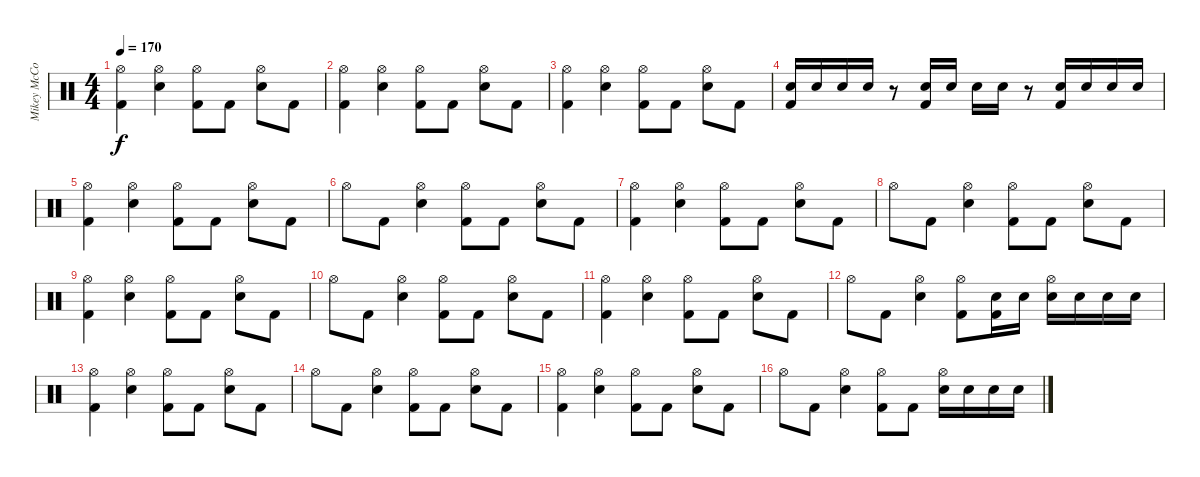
\track ("Mikey McCormack" "Mikey McCo") {instrument percussion}
\staff {score}
\articulation defaults
\ts (4 4)
\tempo 170
\clef neutral
\ks c
("Hi-Hat (open)" "Kick (hit) 2").4{dy f} ("Hi-Hat (open)" "Electric Snare (hit)").4 ("Hi-Hat (open)" "Kick (hit) 2").8 "Kick (hit) 2".8 ("Hi-Hat (open)" "Electric Snare (hit)").8 "Kick (hit) 2".8 |
("Hi-Hat (open)" "Kick (hit) 2").4 ("Hi-Hat (open)" "Electric Snare (hit)").4 ("Hi-Hat (open)" "Kick (hit) 2").8 "Kick (hit) 2".8 ("Hi-Hat (open)" "Electric Snare (hit)").8 "Kick (hit) 2".8 |
("Hi-Hat (open)" "Kick (hit) 2").4 ("Hi-Hat (open)" "Electric Snare (hit)").4 ("Hi-Hat (open)" "Kick (hit) 2").8 "Kick (hit) 2".8 ("Hi-Hat (open)" "Electric Snare (hit)").8 "Kick (hit) 2".8 |
("Electric Snare (hit)" "Kick (hit) 2").16 "Electric Snare (hit)".16 "Electric Snare (hit)".16 "Electric Snare (hit)".16 r.8 ("Electric Snare (hit)" "Kick (hit) 2").16 "Electric Snare (hit)".16 "Electric Snare (hit)".16 "Electric Snare (hit)".16 r.8 ("Electric Snare (hit)" "Kick (hit) 2").16 "Electric Snare (hit)".16 "Electric Snare (hit)".16 "Electric Snare (hit)".16 |
("Hi-Hat (open)" "Kick (hit) 2").4 ("Hi-Hat (open)" "Electric Snare (hit)").4 ("Hi-Hat (open)" "Kick (hit) 2").8 "Kick (hit) 2".8 ("Hi-Hat (open)" "Electric Snare (hit)").8 "Kick (hit) 2".8 |
"Hi-Hat (open)".8 "Kick (hit) 2".8 ("Hi-Hat (open)" "Electric Snare (hit)").4 ("Hi-Hat (open)" "Kick (hit) 2").8 "Kick (hit) 2".8 ("Hi-Hat (open)" "Electric Snare (hit)").8 "Kick (hit) 2".8 |
("Hi-Hat (open)" "Kick (hit) 2").4 ("Hi-Hat (open)" "Electric Snare (hit)").4 ("Hi-Hat (open)" "Kick (hit) 2").8 "Kick (hit) 2".8 ("Hi-Hat (open)" "Electric Snare (hit)").8 "Kick (hit) 2".8 |
"Hi-Hat (open)".8 "Kick (hit) 2".8 ("Hi-Hat (open)" "Electric Snare (hit)").4 ("Hi-Hat (open)" "Kick (hit) 2").8 "Kick (hit) 2".8 ("Hi-Hat (open)" "Electric Snare (hit)").8 "Kick (hit) 2".8 |
("Hi-Hat (open)" "Kick (hit) 2").4 ("Hi-Hat (open)" "Electric Snare (hit)").4 ("Hi-Hat (open)" "Kick (hit) 2").8 "Kick (hit) 2".8 ("Hi-Hat (open)" "Electric Snare (hit)").8 "Kick (hit) 2".8 |
"Hi-Hat (open)".8 "Kick (hit) 2".8 ("Hi-Hat (open)" "Electric Snare (hit)").4 ("Hi-Hat (open)" "Kick (hit) 2").8 "Kick (hit) 2".8 ("Hi-Hat (open)" "Electric Snare (hit)").8 "Kick (hit) 2".8 |
("Hi-Hat (open)" "Kick (hit) 2").4 ("Hi-Hat (open)" "Electric Snare (hit)").4 ("Hi-Hat (open)" "Kick (hit) 2").8 "Kick (hit) 2".8 ("Hi-Hat (open)" "Electric Snare (hit)").8 "Kick (hit) 2".8 |
"Hi-Hat (open)".8 "Kick (hit) 2".8 ("Hi-Hat (open)" "Electric Snare (hit)").4 ("Hi-Hat (open)" "Kick (hit) 2").8 ("Electric Snare (hit)" "Kick (hit) 2").16 "Electric Snare (hit)".16 ("Hi-Hat (open)" "Electric Snare (hit)").16 "Electric Snare (hit)".16 "Electric Snare (hit)".16 "Electric Snare (hit)".16 |
("Hi-Hat (open)" "Kick (hit) 2").4 ("Hi-Hat (open)" "Electric Snare (hit)").4 ("Hi-Hat (open)" "Kick (hit) 2").8 "Kick (hit) 2".8 ("Hi-Hat (open)" "Electric Snare (hit)").8 "Kick (hit) 2".8 |
"Hi-Hat (open)".8 "Kick (hit) 2".8 ("Hi-Hat (open)" "Electric Snare (hit)").4 ("Hi-Hat (open)" "Kick (hit) 2").8 "Kick (hit) 2".8 ("Hi-Hat (open)" "Electric Snare (hit)").8 "Kick (hit) 2".8 |
("Hi-Hat (open)" "Kick (hit) 2").4 ("Hi-Hat (open)" "Electric Snare (hit)").4 ("Hi-Hat (open)" "Kick (hit) 2").8 "Kick (hit) 2".8 ("Hi-Hat (open)" "Electric Snare (hit)").8 "Kick (hit) 2".8 |
"Hi-Hat (open)".8 "Kick (hit) 2".8 ("Hi-Hat (open)" "Electric Snare (hit)").4 ("Hi-Hat (open)" "Kick (hit) 2").8 "Kick (hit) 2".8 ("Hi-Hat (open)" "Electric Snare (hit)").16 "Electric Snare (hit)".16 "Electric Snare (hit)".16 "Electric Snare (hit)".16
